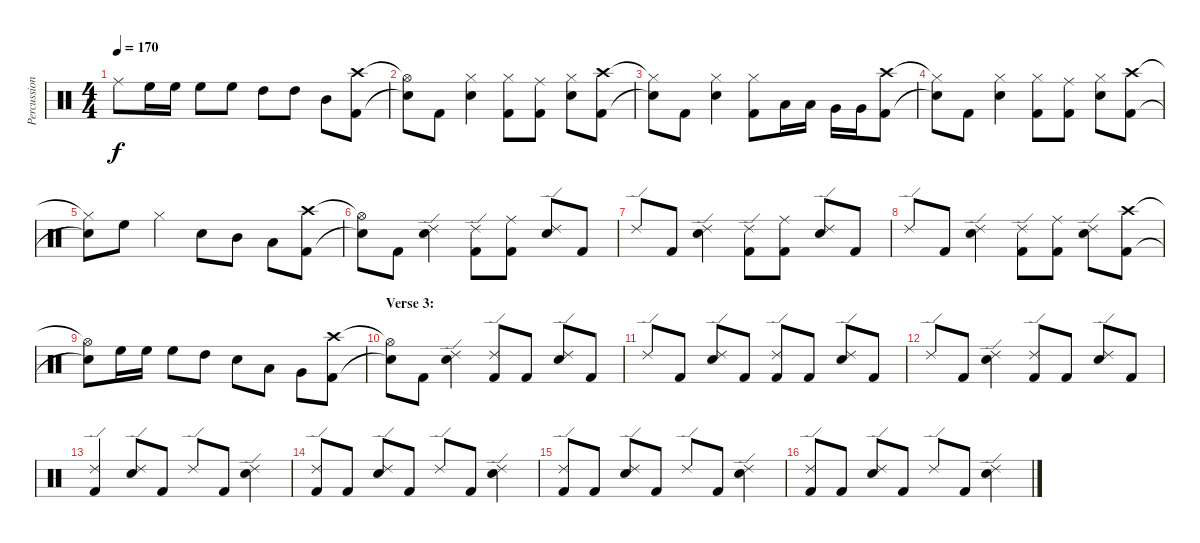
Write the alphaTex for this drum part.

\track ("Percussion" "Percussion") {instrument percussion}
\staff {score}
\articulation defaults
\ts (4 4)
\tempo 170
\clef neutral
\ks c "Ride (middle)".8{dy f} "High Floor Tom (hit)".16 "High Floor Tom (hit)".16 "High Floor Tom (hit)".8 "High Floor Tom (hit)".8 "High Tom (hit)".8 "High Tom (hit)".8 "Mid Tom (hit)".8
("Crash high (hit)" "Kick (hit) 2").8 |
("Hi-Hat (open)"{t} "Snare (hit)"{t}).8 "Kick (hit) 2".8 ("Hi-Hat (closed)" "Snare (hit) 2").4 ("Hi-Hat (closed)" "Kick (hit) 2").8 ("Ride (middle)" "Kick (hit) 2").8 ("Hi-Hat (closed)" "Snare (hit) 2").8 ("Crash high (hit)" "Kick (hit) 2").8 |
("Hi-Hat (closed)"{t} "Snare (hit)"{t}).8 "Kick (hit) 2".8 ("Hi-Hat (closed)" "Snare (hit) 2").4 ("Hi-Hat (closed)" "Kick (hit) 2").8 "Low Tom (hit)".16 "Low Tom (hit)".16 "Very Low Tom (hit)".16 "Very Low Tom (hit)".16 ("Crash high (hit)" "Kick (hit) 2").8 |
("Hi-Hat (closed)"{t} "Snare (hit)"{t}).8 "Kick (hit) 2".8 ("Hi-Hat (closed)" "Snare (hit) 2").4 ("Hi-Hat (closed)" "Kick (hit) 2").8 ("Ride (middle)" "Kick (hit) 2").8 ("Hi-Hat (closed)" "Snare (hit) 2").8 ("Crash high (hit)" "Kick (hit) 2").8 |
("Hi-Hat (closed)"{t} "Snare (hit)"{t}).8 "High Floor Tom (hit)".8 "Hi-Hat (closed)".4 "Snare (hit) 2".8 "Mid Tom (hit)".8 "Low Tom (hit)".8 ("Crash high (hit)" "Kick (hit) 2").8 |
("Hi-Hat (open)"{t} "Snare (hit)"{t}).8 "Kick (hit) 2".8 ("Ride (edge) 2" "Snare (hit) 2").4 ("Ride (edge) 2" "Kick (hit) 2").8 ("Ride (middle)" "Kick (hit) 2").8 ("Ride (edge) 2" "Snare (hit) 2").8 "Kick (hit) 2".8 |
"Ride (edge) 2".8 "Kick (hit) 2".8 ("Ride (edge) 2" "Snare (hit) 2").4 ("Ride (edge) 2" "Kick (hit) 2").8 ("Ride (middle)" "Kick (hit) 2").8 ("Ride (edge) 2" "Snare (hit) 2").8 "Kick (hit) 2".8 |
"Ride (edge) 2".8 "Kick (hit) 2".8 ("Ride (edge) 2" "Snare (hit) 2").4 ("Ride (edge) 2" "Kick (hit) 2").8 ("Ride (middle)" "Kick (hit) 2").8 ("Ride (edge) 2" "Snare (hit) 2").8 ("Crash high (hit)" "Kick (hit) 2").8 |
("Hi-Hat (open)"{t} "Snare (hit)"{t}).8 "High Floor Tom (hit)".16 "High Floor Tom (hit)".16 "High Floor Tom (hit)".8 "High Tom (hit)".8 "Snare (hit) 2".8 "Low Tom (hit)".8 "Very Low Tom (hit)".8 ("Crash high (hit)" "Kick (hit) 2").8 |
\section ("" "Verse 3:")
("Hi-Hat (open)"{t} "Snare (hit)"{t}).8 "Kick (hit) 2".8 ("Ride (edge) 2" "Snare (hit) 2").4 ("Ride (edge) 2" "Kick (hit) 2").8 "Kick (hit) 2".8 ("Ride (edge) 2" "Snare (hit) 2").8 "Kick (hit) 2".8 |
"Ride (edge) 2".8 "Kick (hit) 2".8 ("Ride (edge) 2" "Snare (hit) 2").8 "Kick (hit) 2".8 ("Ride (edge) 2" "Kick (hit) 2").8 "Kick (hit) 2".8 ("Ride (edge) 2" "Snare (hit) 2").8 "Kick (hit) 2".8 |
"Ride (edge) 2".8 "Kick (hit) 2".8 ("Ride (edge) 2" "Snare (hit) 2").4 ("Ride (edge) 2" "Kick (hit) 2").8 "Kick (hit) 2".8 ("Ride (edge) 2" "Snare (hit) 2").8 "Kick (hit) 2".8 |
("Ride (edge) 2" "Kick (hit) 2").4 ("Ride (edge) 2" "Snare (hit) 2").8 "Kick (hit) 2".8 "Ride (edge) 2".8 "Kick (hit) 2".8 ("Ride (edge) 2" "Snare (hit) 2").4 |
("Ride (edge) 2" "Kick (hit) 2").8 "Kick (hit) 2".8 ("Ride (edge) 2" "Snare (hit) 2").8 "Kick (hit) 2".8 "Ride (edge) 2".8 "Kick (hit) 2".8 ("Ride (edge) 2" "Snare (hit) 2").4 |
("Ride (edge) 2" "Kick (hit) 2").8 "Kick (hit) 2".8 ("Ride (edge) 2" "Snare (hit) 2").8 "Kick (hit) 2".8 "Ride (edge) 2".8 "Kick (hit) 2".8 ("Ride (edge) 2" "Snare (hit) 2").4 |
("Ride (edge) 2" "Kick (hit) 2").8 "Kick (hit) 2".8 ("Ride (edge) 2" "Snare (hit) 2").8 "Kick (hit) 2".8 "Ride (edge) 2".8 "Kick (hit) 2".8 ("Ride (edge) 2" "Snare (hit) 2").4
